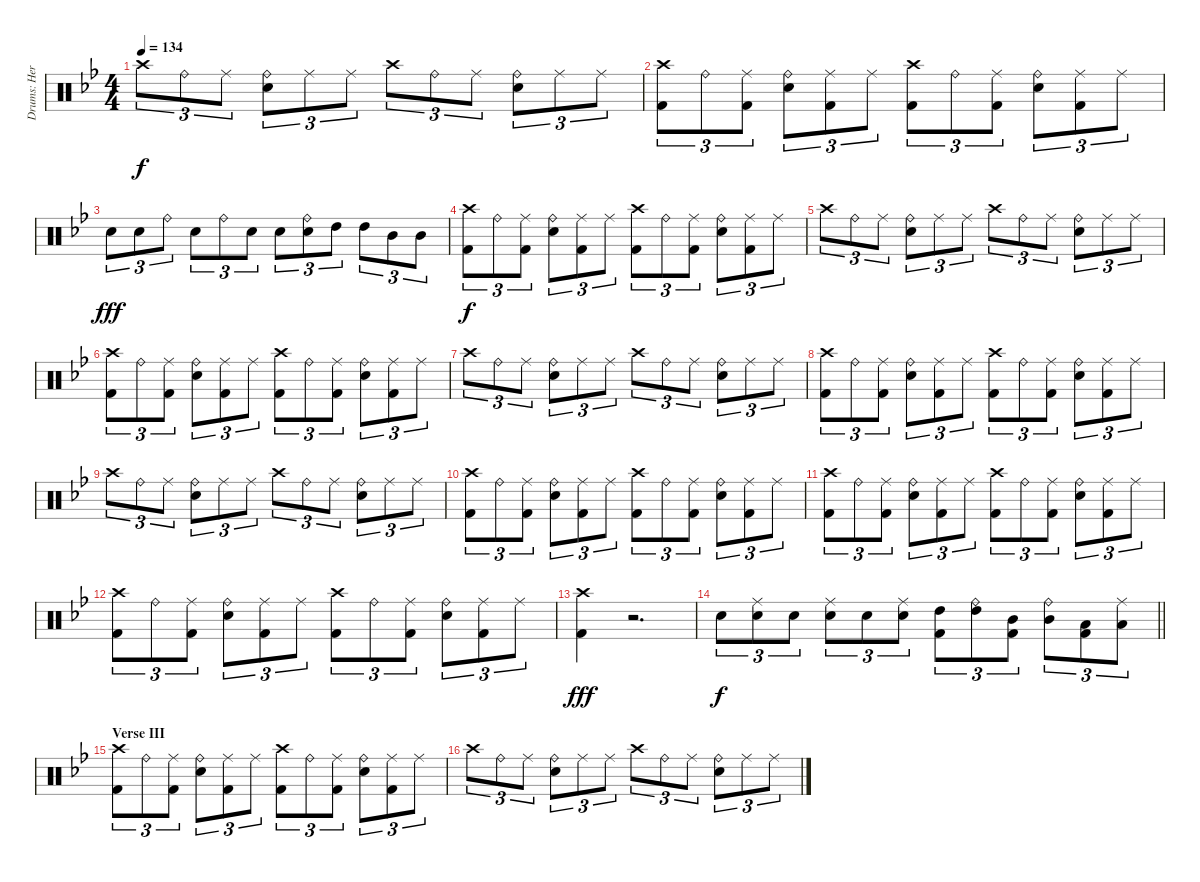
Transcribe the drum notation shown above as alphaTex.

\track ("Drums: Herman" "Drums: Her") {instrument percussion}
\staff {score}
\articulation defaults
\ts (4 4)
\tempo 134
\clef neutral
\ks bb "Crash high (hit)".8{tu (3 2) dy f} "Ride (bell)".8{tu (3 2)} "Ride (middle)".8{tu (3 2)}
("Ride (bell)" "Snare (hit) 2").8{tu (3 2)} "Ride (middle)".8{tu (3 2)} "Ride (middle)".8{tu (3 2)} "Crash high (hit)".8{tu (3 2)} "Ride (bell)".8{tu (3 2)} "Ride (middle)".8{tu (3 2)} ("Ride (bell)" "Snare (hit) 2").8{tu (3 2)} "Ride (middle)".8{tu (3 2)} "Ride (middle)".8{tu (3 2)} |
("Crash high (hit)" "Kick (hit) 2").8{tu (3 2)} "Ride (bell)".8{tu (3 2)} ("Ride (middle)" "Kick (hit) 2").8{tu (3 2)} ("Ride (bell)" "Snare (hit) 2").8{tu (3 2)} ("Ride (middle)" "Kick (hit) 2").8{tu (3 2)} "Ride (middle)".8{tu (3 2)} ("Crash high (hit)" "Kick (hit) 2").8{tu (3 2)} "Ride (bell)".8{tu (3 2)} ("Ride (middle)" "Kick (hit) 2").8{tu (3 2)} ("Ride (bell)" "Snare (hit) 2").8{tu (3 2)} ("Ride (middle)" "Kick (hit) 2").8{tu (3 2)} "Ride (middle)".8{tu (3 2)} |
"Snare (hit) 2".8{tu (3 2) dy fff} "Snare (hit) 2".8{tu (3 2)} "Ride (bell)".8{tu (3 2)} "Snare (hit) 2".8{tu (3 2)} "Ride (bell)".8{tu (3 2)} "Snare (hit) 2".8{tu (3 2)} "Snare (hit) 2".8{tu (3 2)} ("Ride (bell)" "Snare (hit) 2").8{tu (3 2)} "High Tom (hit)".8{tu (3 2)} "High Tom (hit)".8{tu (3 2)} "Mid Tom (hit)".8{tu (3 2)} "Mid Tom (hit)".8{tu (3 2)} |
("Crash high (hit)" "Kick (hit) 2").8{tu (3 2) dy f} "Ride (bell)".8{tu (3 2)} ("Ride (middle)" "Kick (hit) 2").8{tu (3 2)} ("Ride (bell)" "Snare (hit) 2").8{tu (3 2)} ("Ride (middle)" "Kick (hit) 2").8{tu (3 2)} "Ride (middle)".8{tu (3 2)} ("Crash high (hit)" "Kick (hit) 2").8{tu (3 2)} "Ride (bell)".8{tu (3 2)} ("Ride (middle)" "Kick (hit) 2").8{tu (3 2)} ("Ride (bell)" "Snare (hit) 2").8{tu (3 2)} ("Ride (middle)" "Kick (hit) 2").8{tu (3 2)} "Ride (middle)".8{tu (3 2)} |
"Crash high (hit)".8{tu (3 2)} "Ride (bell)".8{tu (3 2)} "Ride (middle)".8{tu (3 2)} ("Ride (bell)" "Snare (hit) 2").8{tu (3 2)} "Ride (middle)".8{tu (3 2)} "Ride (middle)".8{tu (3 2)} "Crash high (hit)".8{tu (3 2)} "Ride (bell)".8{tu (3 2)} "Ride (middle)".8{tu (3 2)} ("Ride (bell)" "Snare (hit) 2").8{tu (3 2)} "Ride (middle)".8{tu (3 2)} "Ride (middle)".8{tu (3 2)} |
("Crash high (hit)" "Kick (hit) 2").8{tu (3 2)} "Ride (bell)".8{tu (3 2)} ("Ride (middle)" "Kick (hit) 2").8{tu (3 2)} ("Ride (bell)" "Snare (hit) 2").8{tu (3 2)} ("Ride (middle)" "Kick (hit) 2").8{tu (3 2)} "Ride (middle)".8{tu (3 2)} ("Crash high (hit)" "Kick (hit) 2").8{tu (3 2)} "Ride (bell)".8{tu (3 2)} ("Ride (middle)" "Kick (hit) 2").8{tu (3 2)} ("Ride (bell)" "Snare (hit) 2").8{tu (3 2)} ("Ride (middle)" "Kick (hit) 2").8{tu (3 2)} "Ride (middle)".8{tu (3 2)} |
"Crash high (hit)".8{tu (3 2)} "Ride (bell)".8{tu (3 2)} "Ride (middle)".8{tu (3 2)} ("Ride (bell)" "Snare (hit) 2").8{tu (3 2)} "Ride (middle)".8{tu (3 2)} "Ride (middle)".8{tu (3 2)} "Crash high (hit)".8{tu (3 2)} "Ride (bell)".8{tu (3 2)} "Ride (middle)".8{tu (3 2)} ("Ride (bell)" "Snare (hit) 2").8{tu (3 2)} "Ride (middle)".8{tu (3 2)} "Ride (middle)".8{tu (3 2)} |
("Crash high (hit)" "Kick (hit) 2").8{tu (3 2)} "Ride (bell)".8{tu (3 2)} ("Ride (middle)" "Kick (hit) 2").8{tu (3 2)} ("Ride (bell)" "Snare (hit) 2").8{tu (3 2)} ("Ride (middle)" "Kick (hit) 2").8{tu (3 2)} "Ride (middle)".8{tu (3 2)} ("Crash high (hit)" "Kick (hit) 2").8{tu (3 2)} "Ride (bell)".8{tu (3 2)} ("Ride (middle)" "Kick (hit) 2").8{tu (3 2)} ("Ride (bell)" "Snare (hit) 2").8{tu (3 2)} ("Ride (middle)" "Kick (hit) 2").8{tu (3 2)} "Ride (middle)".8{tu (3 2)} |
"Crash high (hit)".8{tu (3 2)} "Ride (bell)".8{tu (3 2)} "Ride (middle)".8{tu (3 2)} ("Ride (bell)" "Snare (hit) 2").8{tu (3 2)} "Ride (middle)".8{tu (3 2)} "Ride (middle)".8{tu (3 2)} "Crash high (hit)".8{tu (3 2)} "Ride (bell)".8{tu (3 2)} "Ride (middle)".8{tu (3 2)} ("Ride (bell)" "Snare (hit) 2").8{tu (3 2)} "Ride (middle)".8{tu (3 2)} "Ride (middle)".8{tu (3 2)} |
("Crash high (hit)" "Kick (hit) 2").8{tu (3 2)} "Ride (bell)".8{tu (3 2)} ("Ride (middle)" "Kick (hit) 2").8{tu (3 2)} ("Ride (bell)" "Snare (hit) 2").8{tu (3 2)} ("Ride (middle)" "Kick (hit) 2").8{tu (3 2)} "Ride (middle)".8{tu (3 2)} ("Crash high (hit)" "Kick (hit) 2").8{tu (3 2)} "Ride (bell)".8{tu (3 2)} ("Ride (middle)" "Kick (hit) 2").8{tu (3 2)} ("Ride (bell)" "Snare (hit) 2").8{tu (3 2)} ("Ride (middle)" "Kick (hit) 2").8{tu (3 2)} "Ride (middle)".8{tu (3 2)} |
("Crash high (hit)" "Kick (hit) 2").8{tu (3 2)} "Ride (bell)".8{tu (3 2)} ("Ride (middle)" "Kick (hit) 2").8{tu (3 2)} ("Ride (bell)" "Snare (hit) 2").8{tu (3 2)} ("Ride (middle)" "Kick (hit) 2").8{tu (3 2)} "Ride (middle)".8{tu (3 2)} ("Crash high (hit)" "Kick (hit) 2").8{tu (3 2)} "Ride (bell)".8{tu (3 2)} ("Ride (middle)" "Kick (hit) 2").8{tu (3 2)} ("Ride (bell)" "Snare (hit) 2").8{tu (3 2)} ("Ride (middle)" "Kick (hit) 2").8{tu (3 2)} "Ride (middle)".8{tu (3 2)} |
("Crash high (hit)" "Kick (hit) 2").8{tu (3 2)} "Ride (bell)".8{tu (3 2)} ("Ride (middle)" "Kick (hit) 2").8{tu (3 2)} ("Ride (bell)" "Snare (hit) 2").8{tu (3 2)} ("Ride (middle)" "Kick (hit) 2").8{tu (3 2)} "Ride (middle)".8{tu (3 2)} ("Crash high (hit)" "Kick (hit) 2").8{tu (3 2)} "Ride (bell)".8{tu (3 2)} ("Ride (middle)" "Kick (hit) 2").8{tu (3 2)} ("Ride (bell)" "Snare (hit) 2").8{tu (3 2)} ("Ride (middle)" "Kick (hit) 2").8{tu (3 2)} "Ride (middle)".8{tu (3 2)} |
("Crash high (hit)" "Kick (hit) 2").4{dy fff} r.2{d} |
\barLineRight lightlight "Snare (hit) 2".8{tu (3 2) dy f}
("Ride (middle)" "Snare (hit) 2").8{tu (3 2)} "Snare (hit) 2".8{tu (3 2)} ("Ride (middle)" "Snare (hit) 2").8{tu (3 2)} "Snare (hit) 2".8{tu (3 2)} ("Ride (middle)" "Snare (hit) 2").8{tu (3 2)} ("High Tom (hit)" "Kick (hit) 2").8{tu (3 2)} ("Ride (bell)" "High Tom (hit)").8{tu (3 2)} ("Mid Tom (hit)" "Kick (hit) 2").8{tu (3 2)} ("Ride (bell)" "Mid Tom (hit)").8{tu (3 2)} ("Low Tom (hit)" "Kick (hit) 2").8{tu (3 2)} ("Ride (middle)" "Low Tom (hit)").8{tu (3 2)} |
\section ("" "Verse III")
("Crash high (hit)" "Kick (hit) 2").8{tu (3 2)} "Ride (bell)".8{tu (3 2)} ("Ride (middle)" "Kick (hit) 2").8{tu (3 2)} ("Ride (bell)" "Snare (hit) 2").8{tu (3 2)} ("Ride (middle)" "Kick (hit) 2").8{tu (3 2)} "Ride (middle)".8{tu (3 2)} ("Crash high (hit)" "Kick (hit) 2").8{tu (3 2)} "Ride (bell)".8{tu (3 2)} ("Ride (middle)" "Kick (hit) 2").8{tu (3 2)} ("Ride (bell)" "Snare (hit) 2").8{tu (3 2)} ("Ride (middle)" "Kick (hit) 2").8{tu (3 2)} "Ride (middle)".8{tu (3 2)} |
"Crash high (hit)".8{tu (3 2)} "Ride (bell)".8{tu (3 2)} "Ride (middle)".8{tu (3 2)} ("Ride (bell)" "Snare (hit) 2").8{tu (3 2)} "Ride (middle)".8{tu (3 2)} "Ride (middle)".8{tu (3 2)} "Crash high (hit)".8{tu (3 2)} "Ride (bell)".8{tu (3 2)} "Ride (middle)".8{tu (3 2)} ("Ride (bell)" "Snare (hit) 2").8{tu (3 2)} "Ride (middle)".8{tu (3 2)} "Ride (middle)".8{tu (3 2)}
